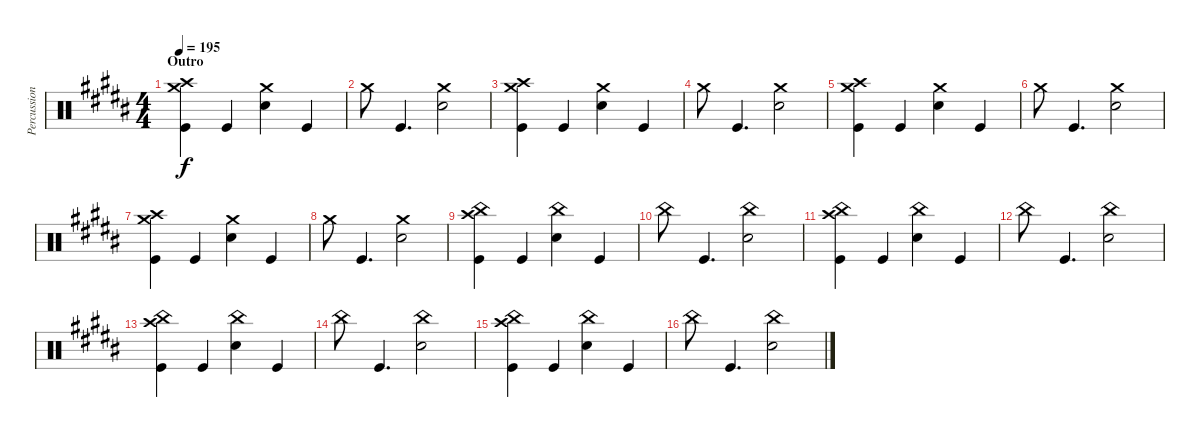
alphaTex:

\track ("Percussion" "Percussion") {instrument percussion}
\staff {score}
\articulation defaults
\ts (4 4)
\section ("" "Outro")
\tempo 195
\clef neutral
\ks b
("Crash high (hit)" "Crash medium (hit)" "Kick (hit)").4{dy f} "Kick (hit)".4 ("Crash medium (hit)" "Electric Snare (hit)").4 "Kick (hit)".4 |
"Crash medium (hit)".8 "Kick (hit)".4{d} ("Crash medium (hit)" "Electric Snare (hit)").2 |
("Crash high (hit)" "Crash medium (hit)" "Kick (hit)").4 "Kick (hit)".4 ("Crash medium (hit)" "Electric Snare (hit)").4 "Kick (hit)".4 |
"Crash medium (hit)".8 "Kick (hit)".4{d} ("Crash medium (hit)" "Electric Snare (hit)").2 |
("Crash high (hit)" "Crash medium (hit)" "Kick (hit)").4 "Kick (hit)".4 ("Crash medium (hit)" "Electric Snare (hit)").4 "Kick (hit)".4 |
"Crash medium (hit)".8 "Kick (hit)".4{d} ("Crash medium (hit)" "Electric Snare (hit)").2 |
("Crash high (hit)" "Crash medium (hit)" "Kick (hit)").4 "Kick (hit)".4 ("Crash medium (hit)" "Electric Snare (hit)").4 "Kick (hit)".4 |
"Crash medium (hit)".8 "Kick (hit)".4{d} ("Crash medium (hit)" "Electric Snare (hit)").2 |
("Crash high (hit)" "China (hit)" "Kick (hit)").4 "Kick (hit)".4 ("China (hit)" "Electric Snare (hit)").4 "Kick (hit)".4 |
"China (hit)".8 "Kick (hit)".4{d} ("China (hit)" "Electric Snare (hit)").2 |
("Crash high (hit)" "China (hit)" "Kick (hit)").4 "Kick (hit)".4 ("China (hit)" "Electric Snare (hit)").4 "Kick (hit)".4 |
"China (hit)".8 "Kick (hit)".4{d} ("China (hit)" "Electric Snare (hit)").2 |
("Crash high (hit)" "China (hit)" "Kick (hit)").4 "Kick (hit)".4 ("China (hit)" "Electric Snare (hit)").4 "Kick (hit)".4 |
"China (hit)".8 "Kick (hit)".4{d} ("China (hit)" "Electric Snare (hit)").2 |
("Crash high (hit)" "China (hit)" "Kick (hit)").4 "Kick (hit)".4 ("China (hit)" "Electric Snare (hit)").4 "Kick (hit)".4 |
"China (hit)".8 "Kick (hit)".4{d} ("China (hit)" "Electric Snare (hit)").2
